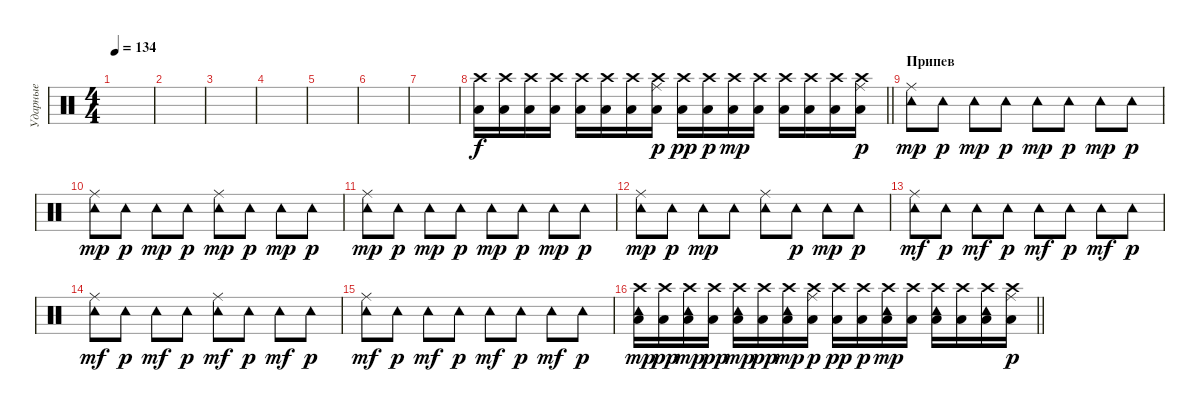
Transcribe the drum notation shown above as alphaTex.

\track ("Ударные" "Ударные") {instrument percussion}
\staff {score}
\articulation defaults
\ts (4 4)
\tempo 134
\clef neutral
\ks c
|
|
|
|
|
|
|
\barLineRight lightlight
("Low Floor Tom (hit)" "Crash high (hit)").16 ("Low Floor Tom (hit)" "Crash high (hit)").16 ("Low Floor Tom (hit)" "Crash high (hit)").16 ("Low Floor Tom (hit)" "Crash high (hit)").16 ("Low Floor Tom (hit)" "Crash high (hit)").16 ("Low Floor Tom (hit)" "Crash high (hit)").16 ("Low Floor Tom (hit)" "Crash high (hit)").16 ("Low Floor Tom (hit)" "Ride (middle)" "Crash high (hit)").16{dy p} ("Low Floor Tom (hit)" "Crash high (hit)").16{dy pp} ("Low Floor Tom (hit)" "Crash high (hit)").16{dy p} ("Low Floor Tom (hit)" "Crash high (hit)").16{dy mp} ("Low Floor Tom (hit)" "Crash high (hit)").16 ("Low Floor Tom (hit)" "Crash high (hit)").16 ("Low Floor Tom (hit)" "Crash high (hit)").16 ("Low Floor Tom (hit)" "Crash high (hit)").16 ("Low Floor Tom (hit)" "Ride (middle)" "Crash high (hit)").16{dy p} |
\section ("" "Припев")
("Tambourine (hit)" "Ride (middle)").8{dy mp} "Tambourine (hit)".8{dy p} "Tambourine (hit)".8{dy mp} "Tambourine (hit)".8{dy p} "Tambourine (hit)".8{dy mp} "Tambourine (hit)".8{dy p} "Tambourine (hit)".8{dy mp} "Tambourine (hit)".8{dy p} |
("Tambourine (hit)" "Ride (middle)").8{dy mp} "Tambourine (hit)".8{dy p} "Tambourine (hit)".8{dy mp} "Tambourine (hit)".8{dy p} ("Tambourine (hit)" "Ride (middle)").8{dy mp} "Tambourine (hit)".8{dy p} "Tambourine (hit)".8{dy mp} "Tambourine (hit)".8{dy p} |
("Tambourine (hit)" "Ride (middle)").8{dy mp} "Tambourine (hit)".8{dy p} "Tambourine (hit)".8{dy mp} "Tambourine (hit)".8{dy p} "Tambourine (hit)".8{dy mp} "Tambourine (hit)".8{dy p} "Tambourine (hit)".8{dy mp} "Tambourine (hit)".8{dy p} |
("Tambourine (hit)" "Ride (middle)").8{dy mp} "Tambourine (hit)".8{dy p} "Tambourine (hit)".8{dy mp} "Tambourine (hit)".8 ("Tambourine (hit)" "Ride (middle)").8 "Tambourine (hit)".8{dy p} "Tambourine (hit)".8{dy mp} "Tambourine (hit)".8{dy p} |
("Tambourine (hit)" "Ride (middle)").8{dy mf} "Tambourine (hit)".8{dy p} "Tambourine (hit)".8{dy mf} "Tambourine (hit)".8{dy p} "Tambourine (hit)".8{dy mf} "Tambourine (hit)".8{dy p} "Tambourine (hit)".8{dy mf} "Tambourine (hit)".8{dy p} |
("Tambourine (hit)" "Ride (middle)").8{dy mf} "Tambourine (hit)".8{dy p} "Tambourine (hit)".8{dy mf} "Tambourine (hit)".8{dy p} ("Tambourine (hit)" "Ride (middle)").8{dy mf} "Tambourine (hit)".8{dy p} "Tambourine (hit)".8{dy mf} "Tambourine (hit)".8{dy p} |
("Tambourine (hit)" "Ride (middle)").8{dy mf} "Tambourine (hit)".8{dy p} "Tambourine (hit)".8{dy mf} "Tambourine (hit)".8{dy p} "Tambourine (hit)".8{dy mf} "Tambourine (hit)".8{dy p} "Tambourine (hit)".8{dy mf} "Tambourine (hit)".8{dy p} |
\barLineRight lightlight
("Low Floor Tom (hit)" "Crash high (hit)" "Tambourine (hit)").16{dy mp} ("Low Floor Tom (hit)" "Crash high (hit)").16{dy pp} ("Low Floor Tom (hit)" "Crash high (hit)" "Tambourine (hit)").16{dy mp} ("Low Floor Tom (hit)" "Crash high (hit)").16{dy pp} ("Low Floor Tom (hit)" "Crash high (hit)" "Tambourine (hit)").16{dy mp} ("Low Floor Tom (hit)" "Crash high (hit)").16{dy pp} ("Low Floor Tom (hit)" "Crash high (hit)" "Tambourine (hit)").16{dy mp} ("Low Floor Tom (hit)" "Ride (middle)" "Crash high (hit)").16{dy p} ("Low Floor Tom (hit)" "Crash high (hit)").16{dy pp} ("Low Floor Tom (hit)" "Crash high (hit)").16{dy p} ("Low Floor Tom (hit)" "Crash high (hit)" "Tambourine (hit)").16{dy mp} ("Low Floor Tom (hit)" "Crash high (hit)").16 ("Low Floor Tom (hit)" "Crash high (hit)" "Tambourine (hit)").16 ("Low Floor Tom (hit)" "Crash high (hit)").16 ("Low Floor Tom (hit)" "Crash high (hit)" "Tambourine (hit)").16 ("Low Floor Tom (hit)" "Ride (middle)" "Crash high (hit)").16{dy p}
